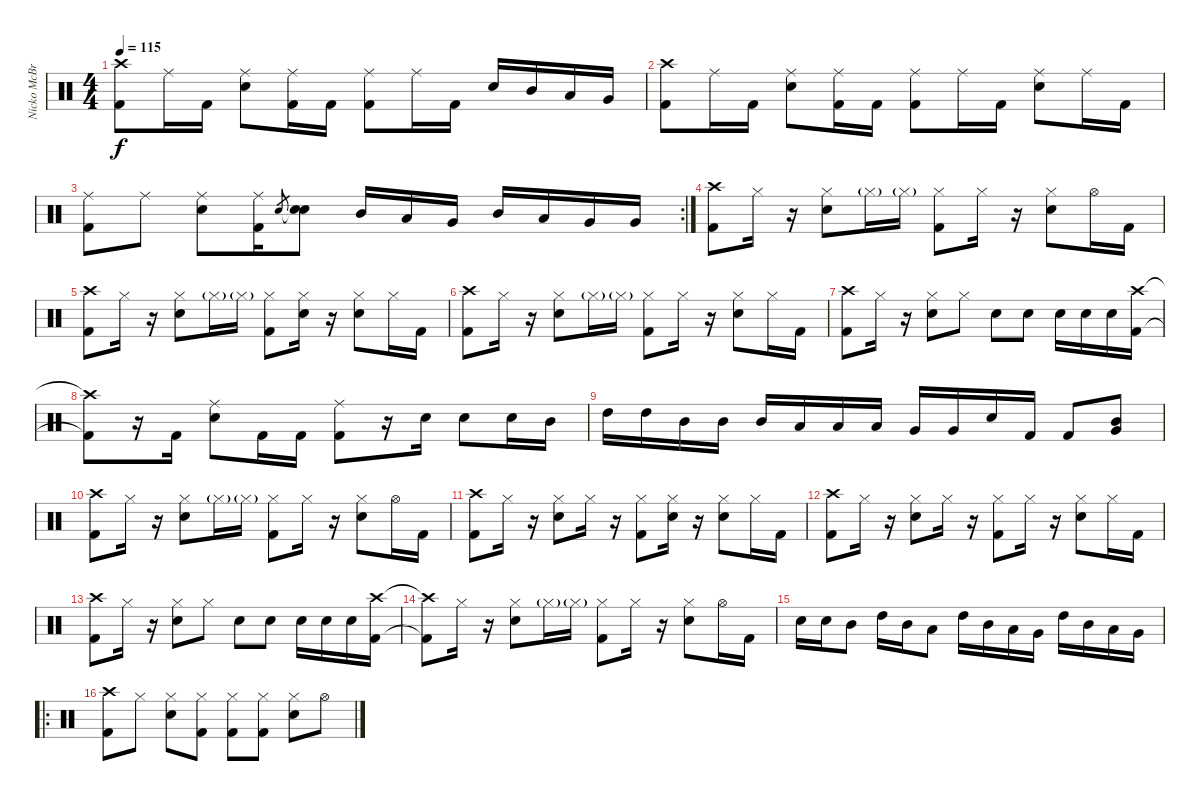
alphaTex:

\track ("Nicko McBrain" "Nicko McBr") {instrument percussion}
\staff {score}
\articulation defaults
\ts (4 4)
\tempo 115
\clef neutral
\ks c
("Crash high (hit)" "Kick (hit) 2").8{dy f} "Ride (middle)".16 "Kick (hit) 2".16 ("Ride (middle)" "Electric Snare (hit)").8 ("Ride (middle)" "Kick (hit) 2").16 "Kick (hit) 2".16 ("Ride (middle)" "Kick (hit) 2").8 "Ride (middle)".16 "Kick (hit) 2".16 "Electric Snare (hit)".16 "Mid Tom (hit)".16 "Low Tom (hit)".16 "Very Low Tom (hit)".16 |
("Crash high (hit)" "Kick (hit) 2").8 "Ride (middle)".16 "Kick (hit) 2".16 ("Ride (middle)" "Electric Snare (hit)").8 ("Ride (middle)" "Kick (hit) 2").16 "Kick (hit) 2".16 ("Ride (middle)" "Kick (hit) 2").8 "Ride (middle)".16 "Kick (hit) 2".16 ("Ride (middle)" "Electric Snare (hit)").8 "Ride (middle)".16 "Kick (hit) 2".16 |
\rc 2
("Ride (middle)" "Kick (hit) 2").8 "Ride (middle)".8 ("Ride (middle)" "Electric Snare (hit)").8 ("Ride (middle)" "Kick (hit) 2").16 "Electric Snare (hit)".8{gr} ("Electric Snare (hit)"{t} "Electric Snare (hit)").8 "Mid Tom (hit)".16 "Low Tom (hit)".16 "Very Low Tom (hit)".16 "Mid Tom (hit)".16 "Low Tom (hit)".16 "Very Low Tom (hit)".16 "Very Low Tom (hit)".16 |
("Crash high (hit)" "Kick (hit) 2").8 "Hi-Hat (closed)".16 r.16 ("Hi-Hat (closed)" "Electric Snare (hit)").8 "Hi-Hat (closed)"{g}.16 "Hi-Hat (closed)"{g}.16 ("Hi-Hat (closed)" "Kick (hit) 2").8 "Hi-Hat (closed)".16 r.16 ("Hi-Hat (closed)" "Electric Snare (hit)").8 "Hi-Hat (open)".16 "Kick (hit) 2".16 |
("Crash high (hit)" "Kick (hit) 2").8 "Hi-Hat (closed)".16 r.16 ("Hi-Hat (closed)" "Electric Snare (hit)").8 "Hi-Hat (closed)"{g}.16 "Hi-Hat (closed)"{g}.16 ("Hi-Hat (closed)" "Kick (hit) 2").8 ("Hi-Hat (closed)" "Electric Snare (hit)").16 r.16 ("Hi-Hat (closed)" "Electric Snare (hit)").8 "Hi-Hat (closed)".16 "Kick (hit) 2".16 |
("Crash high (hit)" "Kick (hit) 2").8 "Hi-Hat (closed)".16 r.16 ("Hi-Hat (closed)" "Electric Snare (hit)").8 "Hi-Hat (closed)"{g}.16 "Hi-Hat (closed)"{g}.16 ("Hi-Hat (closed)" "Kick (hit) 2").8 "Hi-Hat (closed)".16 r.16 ("Hi-Hat (closed)" "Electric Snare (hit)").8 "Hi-Hat (closed)".16 "Kick (hit) 2".16 |
("Crash high (hit)" "Kick (hit) 2").8 "Hi-Hat (closed)".16 r.16 ("Hi-Hat (closed)" "Electric Snare (hit)").8 "Hi-Hat (closed)".8 "Electric Snare (hit)".8 "Electric Snare (hit)".8 "Electric Snare (hit)".16 "Electric Snare (hit)".16 "Electric Snare (hit)".16 ("Crash high (hit)" "Kick (hit) 2").16 |
("Crash high (hit)"{t} "Kick (hit) 2"{t}).8 r.16 "Kick (hit) 2".16 ("Ride (middle)" "Electric Snare (hit)").8 "Kick (hit) 2".16 "Kick (hit) 2".16 ("Ride (middle)" "Kick (hit) 2").8 r.16 "Electric Snare (hit)".16 "Electric Snare (hit)".8 "Electric Snare (hit)".16 "Mid Tom (hit)".16 |
"High Tom (hit)".16 "High Tom (hit)".16 "Mid Tom (hit)".16 "Mid Tom (hit)".16 "Mid Tom (hit)".16 "Low Tom (hit)".16 "Low Tom (hit)".16 "Low Tom (hit)".16 "Very Low Tom (hit)".16 "Very Low Tom (hit)".16 "Electric Snare (hit)".16 "Kick (hit) 2".16 "Kick (hit) 2".8 ("Mid Tom (hit)" "Very Low Tom (hit)").8 |
("Crash high (hit)" "Kick (hit) 2").8 "Hi-Hat (closed)".16 r.16 ("Hi-Hat (closed)" "Electric Snare (hit)").8 "Hi-Hat (closed)"{g}.16 "Hi-Hat (closed)"{g}.16 ("Hi-Hat (closed)" "Kick (hit) 2").8 "Hi-Hat (closed)".16 r.16 ("Hi-Hat (closed)" "Electric Snare (hit)").8 "Hi-Hat (open)".16 "Kick (hit) 2".16 |
("Crash high (hit)" "Kick (hit) 2").8 "Hi-Hat (closed)".16 r.16 ("Hi-Hat (closed)" "Electric Snare (hit)").8 "Hi-Hat (closed)".16 r.16 ("Hi-Hat (closed)" "Kick (hit) 2").8 ("Hi-Hat (closed)" "Electric Snare (hit)").16 r.16 ("Hi-Hat (closed)" "Electric Snare (hit)").8 "Hi-Hat (closed)".16 "Kick (hit) 2".16 |
("Crash high (hit)" "Kick (hit) 2").8 "Hi-Hat (closed)".16 r.16 ("Hi-Hat (closed)" "Electric Snare (hit)").8 "Hi-Hat (closed)".16 r.16 ("Hi-Hat (closed)" "Kick (hit) 2").8 "Hi-Hat (closed)".16 r.16 ("Hi-Hat (closed)" "Electric Snare (hit)").8 "Hi-Hat (closed)".16 "Kick (hit) 2".16 |
("Crash high (hit)" "Kick (hit) 2").8 "Hi-Hat (closed)".16 r.16 ("Hi-Hat (closed)" "Electric Snare (hit)").8 "Hi-Hat (closed)".8 "Electric Snare (hit)".8 "Electric Snare (hit)".8 "Electric Snare (hit)".16 "Electric Snare (hit)".16 "Electric Snare (hit)".16 ("Crash high (hit)" "Kick (hit) 2").16 |
("Crash high (hit)"{t} "Kick (hit) 2"{t}).8 "Hi-Hat (closed)".16 r.16 ("Hi-Hat (closed)" "Electric Snare (hit)").8 "Hi-Hat (closed)"{g}.16 "Hi-Hat (closed)"{g}.16 ("Hi-Hat (closed)" "Kick (hit) 2").8 "Hi-Hat (closed)".16 r.16 ("Hi-Hat (closed)" "Electric Snare (hit)").8 "Hi-Hat (open)".16 "Kick (hit) 2".16 |
"Electric Snare (hit)".16 "Electric Snare (hit)".16 "Mid Tom (hit)".8 "High Tom (hit)".16 "Mid Tom (hit)".16 "Low Tom (hit)".8 "High Tom (hit)".16 "Mid Tom (hit)".16 "Low Tom (hit)".16 "Very Low Tom (hit)".16 "High Tom (hit)".16 "Mid Tom (hit)".16 "Low Tom (hit)".16 "Very Low Tom (hit)".16 |
\ro
("Crash high (hit)" "Kick (hit) 2").8 "Hi-Hat (closed)".8 ("Hi-Hat (closed)" "Electric Snare (hit)").8 ("Hi-Hat (closed)" "Kick (hit) 2").8 ("Hi-Hat (closed)" "Kick (hit) 2").8 ("Hi-Hat (closed)" "Kick (hit) 2").8 ("Hi-Hat (closed)" "Electric Snare (hit)").8 "Hi-Hat (open)".8
